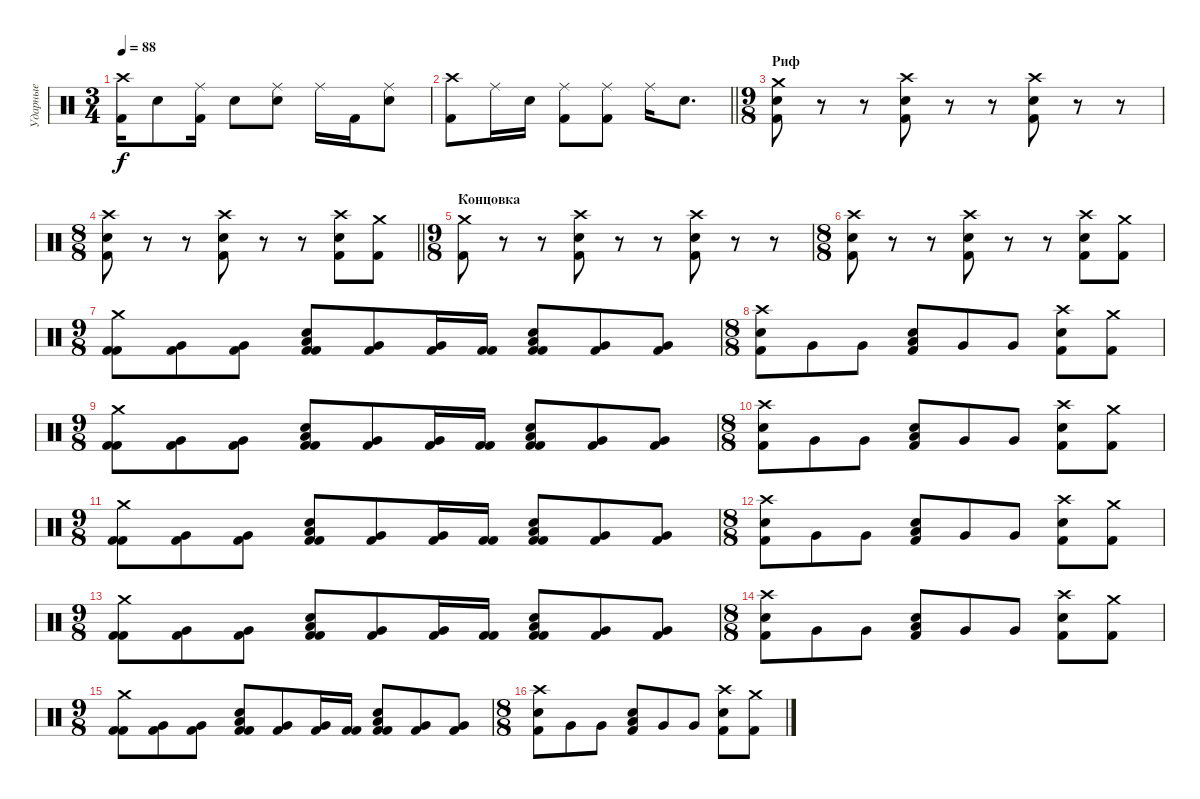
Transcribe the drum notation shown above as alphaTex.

\track ("Ударные" "Ударные") {instrument percussion}
\staff {score}
\articulation defaults
\ts (3 4)
\tempo 88
\clef neutral
\ks c
("Crash high (hit)" "Kick (hit) 2").16{dy f} "Snare (hit) 2".8 ("Ride (middle)" "Kick (hit) 2").16 "Snare (hit) 2".8 ("Ride (middle)" "Snare (hit) 2").8 "Ride (middle)".16 "Kick (hit) 2".16 ("Ride (middle)" "Snare (hit) 2").8 |
\barLineRight lightlight
("Crash high (hit)" "Kick (hit) 2").8 "Ride (middle)".16 "Snare (hit) 2".16 ("Ride (middle)" "Kick (hit) 2").8 ("Ride (middle)" "Kick (hit) 2").8 "Ride (middle)".16 "Snare (hit) 2".8{d} |
\ts (9 8)
\section ("" "Риф")
("Crash medium (hit)" "Snare (hit) 2" "Kick (hit) 2").8 r.8 r.8 ("Crash high (hit)" "Snare (hit) 2" "Kick (hit) 2").8 r.8 r.8 ("Crash high (hit)" "Snare (hit) 2" "Kick (hit) 2").8 r.8 r.8 |
\ts (8 8)
\barLineRight lightlight
("Crash high (hit)" "Snare (hit) 2" "Kick (hit) 2").8 r.8 r.8 ("Crash high (hit)" "Snare (hit) 2" "Kick (hit) 2").8 r.8 r.8 ("Crash high (hit)" "Snare (hit) 2" "Kick (hit) 2").8 ("Crash medium (hit)" "Kick (hit) 2").8 |
\ts (9 8)
\section ("" "Концовка")
("Crash medium (hit)" "Kick (hit) 2").8 r.8 r.8 ("Crash high (hit)" "Snare (hit) 2" "Kick (hit) 2").8 r.8 r.8 ("Crash high (hit)" "Snare (hit) 2" "Kick (hit) 2").8 r.8 r.8 |
\ts (8 8)
("Crash high (hit)" "Snare (hit) 2" "Kick (hit) 2").8 r.8 r.8 ("Crash high (hit)" "Snare (hit) 2" "Kick (hit) 2").8 r.8 r.8 ("Crash high (hit)" "Snare (hit) 2" "Kick (hit) 2").8 ("Crash medium (hit)" "Kick (hit) 2").8 |
\ts (9 8)
("Crash medium (hit)" "Kick (hit) 2" "Kick (hit) 2").8 ("Very Low Tom (hit)" "Kick (hit) 2").8 ("Very Low Tom (hit)" "Kick (hit) 2").8 ("Low Tom (hit)" "Kick (hit) 2" "Snare (hit) 2" "Kick (hit) 2").8 ("Very Low Tom (hit)" "Kick (hit) 2").8 ("Very Low Tom (hit)" "Kick (hit) 2").16 ("Kick (hit) 2" "Kick (hit) 2").16 ("Low Tom (hit)" "Kick (hit) 2" "Snare (hit) 2" "Kick (hit) 2").8 ("Very Low Tom (hit)" "Kick (hit) 2").8 ("Very Low Tom (hit)" "Kick (hit) 2").8 |
\ts (8 8)
("Crash high (hit)" "Snare (hit) 2" "Kick (hit) 2").8 "Very Low Tom (hit)".8 "Very Low Tom (hit)".8 ("Low Tom (hit)" "Snare (hit) 2" "Kick (hit) 2").8 "Very Low Tom (hit)".8 "Very Low Tom (hit)".8 ("Crash high (hit)" "Snare (hit) 2" "Kick (hit) 2").8 ("Crash medium (hit)" "Kick (hit) 2").8 |
\ts (9 8)
("Crash medium (hit)" "Kick (hit) 2" "Kick (hit) 2").8 ("Very Low Tom (hit)" "Kick (hit) 2").8 ("Very Low Tom (hit)" "Kick (hit) 2").8 ("Low Tom (hit)" "Kick (hit) 2" "Snare (hit) 2" "Kick (hit) 2").8 ("Very Low Tom (hit)" "Kick (hit) 2").8 ("Very Low Tom (hit)" "Kick (hit) 2").16 ("Kick (hit) 2" "Kick (hit) 2").16 ("Low Tom (hit)" "Kick (hit) 2" "Snare (hit) 2" "Kick (hit) 2").8 ("Very Low Tom (hit)" "Kick (hit) 2").8 ("Very Low Tom (hit)" "Kick (hit) 2").8 |
\ts (8 8)
("Crash high (hit)" "Snare (hit) 2" "Kick (hit) 2").8 "Very Low Tom (hit)".8 "Very Low Tom (hit)".8 ("Low Tom (hit)" "Snare (hit) 2" "Kick (hit) 2").8 "Very Low Tom (hit)".8 "Very Low Tom (hit)".8 ("Crash high (hit)" "Snare (hit) 2" "Kick (hit) 2").8 ("Crash medium (hit)" "Kick (hit) 2").8 |
\ts (9 8)
("Crash medium (hit)" "Kick (hit) 2" "Kick (hit) 2").8 ("Very Low Tom (hit)" "Kick (hit) 2").8 ("Very Low Tom (hit)" "Kick (hit) 2").8 ("Low Tom (hit)" "Kick (hit) 2" "Snare (hit) 2" "Kick (hit) 2").8 ("Very Low Tom (hit)" "Kick (hit) 2").8 ("Very Low Tom (hit)" "Kick (hit) 2").16 ("Kick (hit) 2" "Kick (hit) 2").16 ("Low Tom (hit)" "Kick (hit) 2" "Snare (hit) 2" "Kick (hit) 2").8 ("Very Low Tom (hit)" "Kick (hit) 2").8 ("Very Low Tom (hit)" "Kick (hit) 2").8 |
\ts (8 8)
("Crash high (hit)" "Snare (hit) 2" "Kick (hit) 2").8 "Very Low Tom (hit)".8 "Very Low Tom (hit)".8 ("Low Tom (hit)" "Snare (hit) 2" "Kick (hit) 2").8 "Very Low Tom (hit)".8 "Very Low Tom (hit)".8 ("Crash high (hit)" "Snare (hit) 2" "Kick (hit) 2").8 ("Crash medium (hit)" "Kick (hit) 2").8 |
\ts (9 8)
("Crash medium (hit)" "Kick (hit) 2" "Kick (hit) 2").8 ("Very Low Tom (hit)" "Kick (hit) 2").8 ("Very Low Tom (hit)" "Kick (hit) 2").8 ("Low Tom (hit)" "Kick (hit) 2" "Snare (hit) 2" "Kick (hit) 2").8 ("Very Low Tom (hit)" "Kick (hit) 2").8 ("Very Low Tom (hit)" "Kick (hit) 2").16 ("Kick (hit) 2" "Kick (hit) 2").16 ("Low Tom (hit)" "Kick (hit) 2" "Snare (hit) 2" "Kick (hit) 2").8 ("Very Low Tom (hit)" "Kick (hit) 2").8 ("Very Low Tom (hit)" "Kick (hit) 2").8 |
\ts (8 8)
("Crash high (hit)" "Snare (hit) 2" "Kick (hit) 2").8 "Very Low Tom (hit)".8 "Very Low Tom (hit)".8 ("Low Tom (hit)" "Snare (hit) 2" "Kick (hit) 2").8 "Very Low Tom (hit)".8 "Very Low Tom (hit)".8 ("Crash high (hit)" "Snare (hit) 2" "Kick (hit) 2").8 ("Crash medium (hit)" "Kick (hit) 2").8 |
\ts (9 8)
("Crash medium (hit)" "Kick (hit) 2" "Kick (hit) 2").8 ("Very Low Tom (hit)" "Kick (hit) 2").8 ("Very Low Tom (hit)" "Kick (hit) 2").8 ("Low Tom (hit)" "Kick (hit) 2" "Snare (hit) 2" "Kick (hit) 2").8 ("Very Low Tom (hit)" "Kick (hit) 2").8 ("Very Low Tom (hit)" "Kick (hit) 2").16 ("Kick (hit) 2" "Kick (hit) 2").16 ("Low Tom (hit)" "Kick (hit) 2" "Snare (hit) 2" "Kick (hit) 2").8 ("Very Low Tom (hit)" "Kick (hit) 2").8 ("Very Low Tom (hit)" "Kick (hit) 2").8 |
\ts (8 8)
("Crash high (hit)" "Snare (hit) 2" "Kick (hit) 2").8 "Very Low Tom (hit)".8 "Very Low Tom (hit)".8 ("Low Tom (hit)" "Snare (hit) 2" "Kick (hit) 2").8 "Very Low Tom (hit)".8 "Very Low Tom (hit)".8 ("Crash high (hit)" "Snare (hit) 2" "Kick (hit) 2").8 ("Crash medium (hit)" "Kick (hit) 2").8
